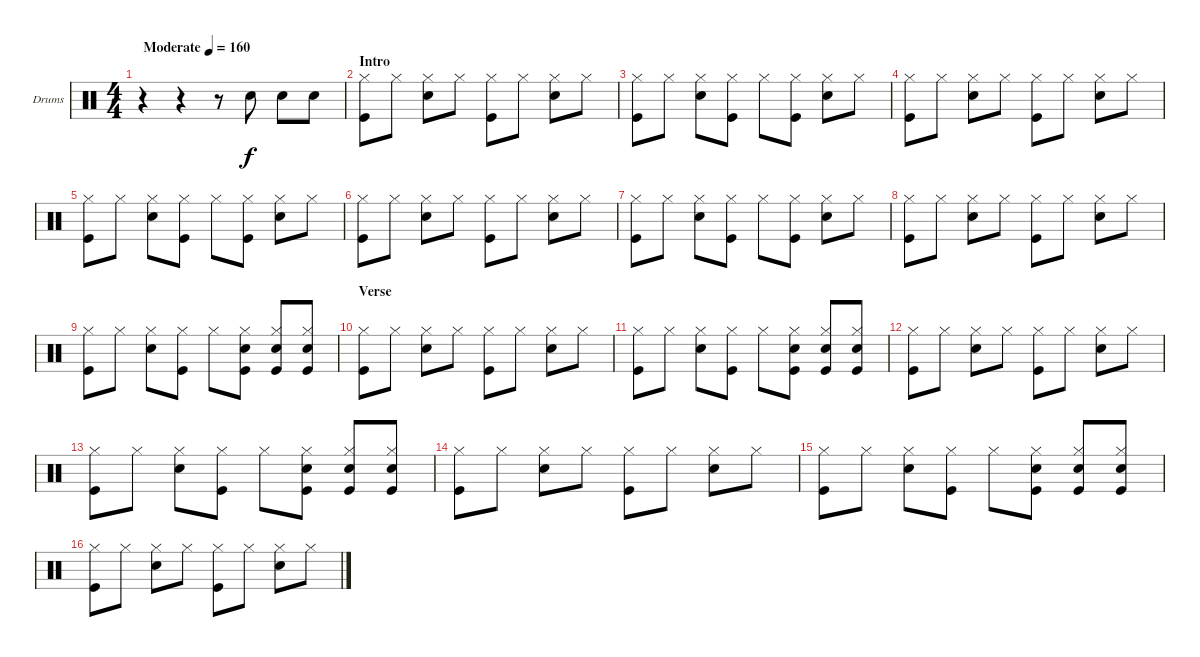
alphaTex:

\bracketExtendMode groupsimilarinstruments
\firstSystemTrackNameOrientation horizontal
\otherSystemsTrackNameOrientation horizontal
\track ("Fabrizio" "Drums") {instrument percussion}
\staff {score}
\articulation defaults
\ts (4 4)
\beaming (8 2 2 2 2)
\tempo (160 "Moderate")
\clef neutral
\ks c
r.4{dy f} r.4 r.8 "Snare (hit) 2".8 "Snare (hit) 2".8 "Snare (hit) 2".8 |
\section ("" "Intro")
("Hi-Hat (closed)" "Kick (hit)").8 "Hi-Hat (closed)".8 ("Hi-Hat (closed)" "Snare (hit) 2").8 "Hi-Hat (closed)".8 ("Hi-Hat (closed)" "Kick (hit)").8 "Hi-Hat (closed)".8 ("Hi-Hat (closed)" "Snare (hit) 2").8 "Hi-Hat (closed)".8 |
("Hi-Hat (closed)" "Kick (hit)").8 "Hi-Hat (closed)".8 ("Hi-Hat (closed)" "Snare (hit) 2").8 ("Hi-Hat (closed)" "Kick (hit)").8 "Hi-Hat (closed)".8 ("Hi-Hat (closed)" "Kick (hit)").8 ("Hi-Hat (closed)" "Snare (hit) 2").8 "Hi-Hat (closed)".8 |
("Hi-Hat (closed)" "Kick (hit)").8 "Hi-Hat (closed)".8 ("Hi-Hat (closed)" "Snare (hit) 2").8 "Hi-Hat (closed)".8 ("Hi-Hat (closed)" "Kick (hit)").8 "Hi-Hat (closed)".8 ("Hi-Hat (closed)" "Snare (hit) 2").8 "Hi-Hat (closed)".8 |
("Hi-Hat (closed)" "Kick (hit)").8 "Hi-Hat (closed)".8 ("Hi-Hat (closed)" "Snare (hit) 2").8 ("Hi-Hat (closed)" "Kick (hit)").8 "Hi-Hat (closed)".8 ("Hi-Hat (closed)" "Kick (hit)").8 ("Hi-Hat (closed)" "Snare (hit) 2").8 "Hi-Hat (closed)".8 |
("Hi-Hat (closed)" "Kick (hit)").8 "Hi-Hat (closed)".8 ("Hi-Hat (closed)" "Snare (hit) 2").8 "Hi-Hat (closed)".8 ("Hi-Hat (closed)" "Kick (hit)").8 "Hi-Hat (closed)".8 ("Hi-Hat (closed)" "Snare (hit) 2").8 "Hi-Hat (closed)".8 |
("Hi-Hat (closed)" "Kick (hit)").8 "Hi-Hat (closed)".8 ("Hi-Hat (closed)" "Snare (hit) 2").8 ("Hi-Hat (closed)" "Kick (hit)").8 "Hi-Hat (closed)".8 ("Hi-Hat (closed)" "Kick (hit)").8 ("Hi-Hat (closed)" "Snare (hit) 2").8 "Hi-Hat (closed)".8 |
("Hi-Hat (closed)" "Kick (hit)").8 "Hi-Hat (closed)".8 ("Hi-Hat (closed)" "Snare (hit) 2").8 "Hi-Hat (closed)".8 ("Hi-Hat (closed)" "Kick (hit)").8 "Hi-Hat (closed)".8 ("Hi-Hat (closed)" "Snare (hit) 2").8 "Hi-Hat (closed)".8 |
("Hi-Hat (closed)" "Kick (hit)").8 "Hi-Hat (closed)".8 ("Hi-Hat (closed)" "Snare (hit) 2").8 ("Hi-Hat (closed)" "Kick (hit)").8 "Hi-Hat (closed)".8 ("Hi-Hat (closed)" "Snare (hit) 2" "Kick (hit)").8 ("Hi-Hat (closed)" "Snare (hit) 2" "Kick (hit)").8 ("Hi-Hat (closed)" "Snare (hit) 2" "Kick (hit)").8 |
\section ("" "Verse")
("Hi-Hat (closed)" "Kick (hit)").8 "Hi-Hat (closed)".8 ("Hi-Hat (closed)" "Snare (hit) 2").8 "Hi-Hat (closed)".8 ("Hi-Hat (closed)" "Kick (hit)").8 "Hi-Hat (closed)".8 ("Hi-Hat (closed)" "Snare (hit) 2").8 "Hi-Hat (closed)".8 |
("Hi-Hat (closed)" "Kick (hit)").8 "Hi-Hat (closed)".8 ("Hi-Hat (closed)" "Snare (hit) 2").8 ("Hi-Hat (closed)" "Kick (hit)").8 "Hi-Hat (closed)".8 ("Hi-Hat (closed)" "Snare (hit) 2" "Kick (hit)").8 ("Hi-Hat (closed)" "Snare (hit) 2" "Kick (hit)").8 ("Hi-Hat (closed)" "Snare (hit) 2" "Kick (hit)").8 |
("Hi-Hat (closed)" "Kick (hit)").8 "Hi-Hat (closed)".8 ("Hi-Hat (closed)" "Snare (hit) 2").8 "Hi-Hat (closed)".8 ("Hi-Hat (closed)" "Kick (hit)").8 "Hi-Hat (closed)".8 ("Hi-Hat (closed)" "Snare (hit) 2").8 "Hi-Hat (closed)".8 |
("Hi-Hat (closed)" "Kick (hit)").8 "Hi-Hat (closed)".8 ("Hi-Hat (closed)" "Snare (hit) 2").8 ("Hi-Hat (closed)" "Kick (hit)").8 "Hi-Hat (closed)".8 ("Hi-Hat (closed)" "Snare (hit) 2" "Kick (hit)").8 ("Hi-Hat (closed)" "Snare (hit) 2" "Kick (hit)").8 ("Hi-Hat (closed)" "Snare (hit) 2" "Kick (hit)").8 |
("Hi-Hat (closed)" "Kick (hit)").8 "Hi-Hat (closed)".8 ("Hi-Hat (closed)" "Snare (hit) 2").8 "Hi-Hat (closed)".8 ("Hi-Hat (closed)" "Kick (hit)").8 "Hi-Hat (closed)".8 ("Hi-Hat (closed)" "Snare (hit) 2").8 "Hi-Hat (closed)".8 |
("Hi-Hat (closed)" "Kick (hit)").8 "Hi-Hat (closed)".8 ("Hi-Hat (closed)" "Snare (hit) 2").8 ("Hi-Hat (closed)" "Kick (hit)").8 "Hi-Hat (closed)".8 ("Hi-Hat (closed)" "Snare (hit) 2" "Kick (hit)").8 ("Hi-Hat (closed)" "Snare (hit) 2" "Kick (hit)").8 ("Hi-Hat (closed)" "Snare (hit) 2" "Kick (hit)").8 |
("Hi-Hat (closed)" "Kick (hit)").8 "Hi-Hat (closed)".8 ("Hi-Hat (closed)" "Snare (hit) 2").8 "Hi-Hat (closed)".8 ("Hi-Hat (closed)" "Kick (hit)").8 "Hi-Hat (closed)".8 ("Hi-Hat (closed)" "Snare (hit) 2").8 "Hi-Hat (closed)".8
